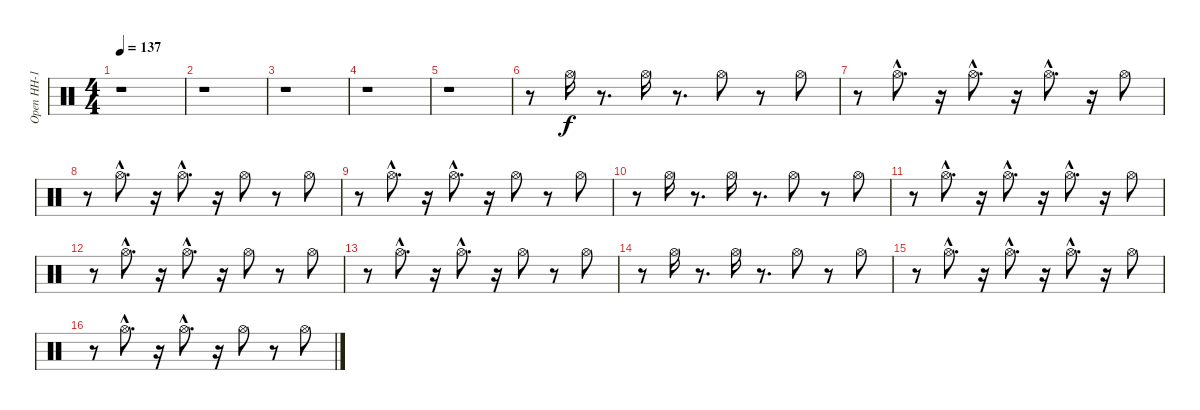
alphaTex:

\track ("Open HH-1" "Open HH-1") {instrument percussion}
\staff {score}
\articulation defaults
\ts (4 4)
\tempo 137
\clef neutral
\ks c
r.1{dy f} |
r.1 |
r.1 |
r.1 |
r.1 |
r.8 "Hi-Hat (open)".16 r.8{d} "Hi-Hat (open)".16 r.8{d} "Hi-Hat (open)".8 r.8 "Hi-Hat (open)".8 |
r.8 "Hi-Hat (open)"{hac}.8{d} r.16 "Hi-Hat (open)"{hac}.8{d} r.16 "Hi-Hat (open)"{hac}.8{d} r.16 "Hi-Hat (open)".8 |
r.8 "Hi-Hat (open)"{hac}.8{d} r.16 "Hi-Hat (open)"{hac}.8{d} r.16 "Hi-Hat (open)".8 r.8 "Hi-Hat (open)".8 |
r.8 "Hi-Hat (open)"{hac}.8{d} r.16 "Hi-Hat (open)"{hac}.8{d} r.16 "Hi-Hat (open)".8 r.8 "Hi-Hat (open)".8 |
r.8 "Hi-Hat (open)".16 r.8{d} "Hi-Hat (open)".16 r.8{d} "Hi-Hat (open)".8 r.8 "Hi-Hat (open)".8 |
r.8 "Hi-Hat (open)"{hac}.8{d} r.16 "Hi-Hat (open)"{hac}.8{d} r.16 "Hi-Hat (open)"{hac}.8{d} r.16 "Hi-Hat (open)".8 |
r.8 "Hi-Hat (open)"{hac}.8{d} r.16 "Hi-Hat (open)"{hac}.8{d} r.16 "Hi-Hat (open)".8 r.8 "Hi-Hat (open)".8 |
r.8 "Hi-Hat (open)"{hac}.8{d} r.16 "Hi-Hat (open)"{hac}.8{d} r.16 "Hi-Hat (open)".8 r.8 "Hi-Hat (open)".8 |
r.8 "Hi-Hat (open)".16 r.8{d} "Hi-Hat (open)".16 r.8{d} "Hi-Hat (open)".8 r.8 "Hi-Hat (open)".8 |
r.8 "Hi-Hat (open)"{hac}.8{d} r.16 "Hi-Hat (open)"{hac}.8{d} r.16 "Hi-Hat (open)"{hac}.8{d} r.16 "Hi-Hat (open)".8 |
r.8 "Hi-Hat (open)"{hac}.8{d} r.16 "Hi-Hat (open)"{hac}.8{d} r.16 "Hi-Hat (open)".8 r.8 "Hi-Hat (open)".8
